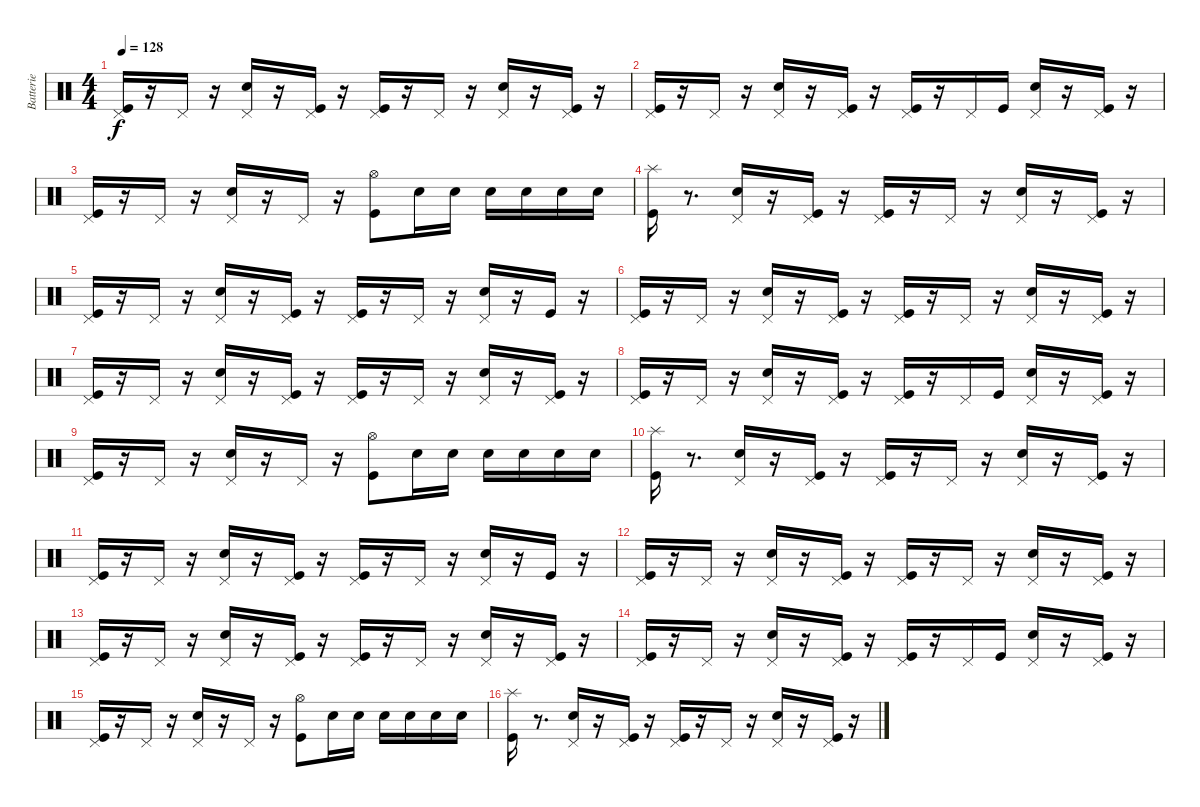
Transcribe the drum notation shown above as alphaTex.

\track ("Batterie" "Batterie") {instrument percussion}
\staff {score}
\articulation defaults
\ts (4 4)
\tempo 128
\clef neutral
\ks c
("Pedal Hi-Hat (hit)" "Kick (hit)").16{dy f} r.16 "Pedal Hi-Hat (hit)".16 r.16 ("Pedal Hi-Hat (hit)" "Snare (hit) 2").16 r.16 ("Pedal Hi-Hat (hit)" "Kick (hit)").16 r.16 ("Pedal Hi-Hat (hit)" "Kick (hit)").16 r.16 "Pedal Hi-Hat (hit)".16 r.16 ("Pedal Hi-Hat (hit)" "Snare (hit) 2").16 r.16 ("Pedal Hi-Hat (hit)" "Kick (hit)").16 r.16 |
("Pedal Hi-Hat (hit)" "Kick (hit)").16 r.16 "Pedal Hi-Hat (hit)".16 r.16 ("Pedal Hi-Hat (hit)" "Snare (hit) 2").16 r.16 ("Kick (hit)" "Pedal Hi-Hat (hit)").16 r.16 ("Pedal Hi-Hat (hit)" "Kick (hit)").16 r.16 "Pedal Hi-Hat (hit)".16 "Kick (hit)".16 ("Pedal Hi-Hat (hit)" "Snare (hit) 2").16 r.16 ("Kick (hit)" "Pedal Hi-Hat (hit)").16 r.16 |
("Pedal Hi-Hat (hit)" "Kick (hit)").16 r.16 "Pedal Hi-Hat (hit)".16 r.16 ("Pedal Hi-Hat (hit)" "Snare (hit) 2").16 r.16 "Pedal Hi-Hat (hit)".16 r.16 ("Hi-Hat (open)" "Kick (hit)").8 "Snare (hit) 2".16 "Snare (hit) 2".16 "Snare (hit) 2".16 "Snare (hit) 2".16 "Snare (hit) 2".16 "Snare (hit) 2".16 |
("Splash (hit)" "Kick (hit)").16 r.8{d} ("Pedal Hi-Hat (hit)" "Snare (hit) 2").16 r.16 ("Kick (hit)" "Pedal Hi-Hat (hit)").16 r.16 ("Pedal Hi-Hat (hit)" "Kick (hit)").16 r.16 "Pedal Hi-Hat (hit)".16 r.16 ("Pedal Hi-Hat (hit)" "Snare (hit) 2").16 r.16 ("Kick (hit)" "Pedal Hi-Hat (hit)").16 r.16 |
("Pedal Hi-Hat (hit)" "Kick (hit)").16 r.16 "Pedal Hi-Hat (hit)".16 r.16 ("Pedal Hi-Hat (hit)" "Snare (hit) 2").16 r.16 ("Pedal Hi-Hat (hit)" "Kick (hit)").16 r.16 ("Pedal Hi-Hat (hit)" "Kick (hit)").16 r.16 "Pedal Hi-Hat (hit)".16 r.16 ("Pedal Hi-Hat (hit)" "Snare (hit) 2").16 r.16 "Kick (hit)".16 r.16 |
("Pedal Hi-Hat (hit)" "Kick (hit)").16 r.16 "Pedal Hi-Hat (hit)".16 r.16 ("Pedal Hi-Hat (hit)" "Snare (hit) 2").16 r.16 ("Kick (hit)" "Pedal Hi-Hat (hit)").16 r.16 ("Pedal Hi-Hat (hit)" "Kick (hit)").16 r.16 "Pedal Hi-Hat (hit)".16 r.16 ("Pedal Hi-Hat (hit)" "Snare (hit) 2").16 r.16 ("Kick (hit)" "Pedal Hi-Hat (hit)").16 r.16 |
("Pedal Hi-Hat (hit)" "Kick (hit)").16 r.16 "Pedal Hi-Hat (hit)".16 r.16 ("Pedal Hi-Hat (hit)" "Snare (hit) 2").16 r.16 ("Pedal Hi-Hat (hit)" "Kick (hit)").16 r.16 ("Pedal Hi-Hat (hit)" "Kick (hit)").16 r.16 "Pedal Hi-Hat (hit)".16 r.16 ("Pedal Hi-Hat (hit)" "Snare (hit) 2").16 r.16 ("Pedal Hi-Hat (hit)" "Kick (hit)").16 r.16 |
("Pedal Hi-Hat (hit)" "Kick (hit)").16 r.16 "Pedal Hi-Hat (hit)".16 r.16 ("Pedal Hi-Hat (hit)" "Snare (hit) 2").16 r.16 ("Kick (hit)" "Pedal Hi-Hat (hit)").16 r.16 ("Pedal Hi-Hat (hit)" "Kick (hit)").16 r.16 "Pedal Hi-Hat (hit)".16 "Kick (hit)".16 ("Pedal Hi-Hat (hit)" "Snare (hit) 2").16 r.16 ("Kick (hit)" "Pedal Hi-Hat (hit)").16 r.16 |
("Pedal Hi-Hat (hit)" "Kick (hit)").16 r.16 "Pedal Hi-Hat (hit)".16 r.16 ("Pedal Hi-Hat (hit)" "Snare (hit) 2").16 r.16 "Pedal Hi-Hat (hit)".16 r.16 ("Hi-Hat (open)" "Kick (hit)").8 "Snare (hit) 2".16 "Snare (hit) 2".16 "Snare (hit) 2".16 "Snare (hit) 2".16 "Snare (hit) 2".16 "Snare (hit) 2".16 |
("Splash (hit)" "Kick (hit)").16 r.8{d} ("Pedal Hi-Hat (hit)" "Snare (hit) 2").16 r.16 ("Kick (hit)" "Pedal Hi-Hat (hit)").16 r.16 ("Pedal Hi-Hat (hit)" "Kick (hit)").16 r.16 "Pedal Hi-Hat (hit)".16 r.16 ("Pedal Hi-Hat (hit)" "Snare (hit) 2").16 r.16 ("Kick (hit)" "Pedal Hi-Hat (hit)").16 r.16 |
("Pedal Hi-Hat (hit)" "Kick (hit)").16 r.16 "Pedal Hi-Hat (hit)".16{volume 16} r.16 ("Pedal Hi-Hat (hit)" "Snare (hit) 2").16{volume 16} r.16 ("Pedal Hi-Hat (hit)" "Kick (hit)").16{volume 15} r.16 ("Pedal Hi-Hat (hit)" "Kick (hit)").16{volume 15} r.16 "Pedal Hi-Hat (hit)".16{volume 15} r.16 ("Pedal Hi-Hat (hit)" "Snare (hit) 2").16{volume 15} r.16 "Kick (hit)".16{volume 15} r.16 |
("Pedal Hi-Hat (hit)" "Kick (hit)").16{volume 14} r.16 "Pedal Hi-Hat (hit)".16{volume 14} r.16 ("Pedal Hi-Hat (hit)" "Snare (hit) 2").16{volume 14} r.16 ("Kick (hit)" "Pedal Hi-Hat (hit)").16{volume 14} r.16 ("Pedal Hi-Hat (hit)" "Kick (hit)").16{volume 14} r.16 "Pedal Hi-Hat (hit)".16{volume 14} r.16 ("Pedal Hi-Hat (hit)" "Snare (hit) 2").16{volume 13} r.16 ("Kick (hit)" "Pedal Hi-Hat (hit)").16{volume 13} r.16 |
("Pedal Hi-Hat (hit)" "Kick (hit)").16{volume 13} r.16 "Pedal Hi-Hat (hit)".16{volume 13} r.16 ("Pedal Hi-Hat (hit)" "Snare (hit) 2").16{volume 13} r.16 ("Pedal Hi-Hat (hit)" "Kick (hit)").16{volume 12} r.16 ("Pedal Hi-Hat (hit)" "Kick (hit)").16{volume 12} r.16 "Pedal Hi-Hat (hit)".16{volume 12} r.16 ("Pedal Hi-Hat (hit)" "Snare (hit) 2").16{volume 12} r.16 ("Pedal Hi-Hat (hit)" "Kick (hit)").16{volume 12} r.16 |
("Pedal Hi-Hat (hit)" "Kick (hit)").16{volume 12} r.16 "Pedal Hi-Hat (hit)".16{volume 11} r.16 ("Pedal Hi-Hat (hit)" "Snare (hit) 2").16{volume 11} r.16 ("Kick (hit)" "Pedal Hi-Hat (hit)").16{volume 11} r.16 ("Pedal Hi-Hat (hit)" "Kick (hit)").16{volume 11} r.16 "Pedal Hi-Hat (hit)".16{volume 11} "Kick (hit)".16{volume 11} ("Pedal Hi-Hat (hit)" "Snare (hit) 2").16{volume 10} r.16 ("Kick (hit)" "Pedal Hi-Hat (hit)").16{volume 10} r.16 |
("Pedal Hi-Hat (hit)" "Kick (hit)").16{volume 10} r.16 "Pedal Hi-Hat (hit)".16{volume 10} r.16 ("Pedal Hi-Hat (hit)" "Snare (hit) 2").16{volume 10} r.16 "Pedal Hi-Hat (hit)".16{volume 10} r.16 ("Hi-Hat (open)" "Kick (hit)").8{volume 10} "Snare (hit) 2".16{volume 9} "Snare (hit) 2".16{volume 9} "Snare (hit) 2".16 "Snare (hit) 2".16{volume 9} "Snare (hit) 2".16{volume 9} "Snare (hit) 2".16{volume 9} |
("Splash (hit)" "Kick (hit)").16 r.8{d} ("Pedal Hi-Hat (hit)" "Snare (hit) 2").16{volume 8} r.16 ("Kick (hit)" "Pedal Hi-Hat (hit)").16{volume 8} r.16 ("Pedal Hi-Hat (hit)" "Kick (hit)").16{volume 8} r.16 "Pedal Hi-Hat (hit)".16{volume 8} r.16 ("Pedal Hi-Hat (hit)" "Snare (hit) 2").16{volume 8} r.16 ("Kick (hit)" "Pedal Hi-Hat (hit)").16{volume 8} r.16
